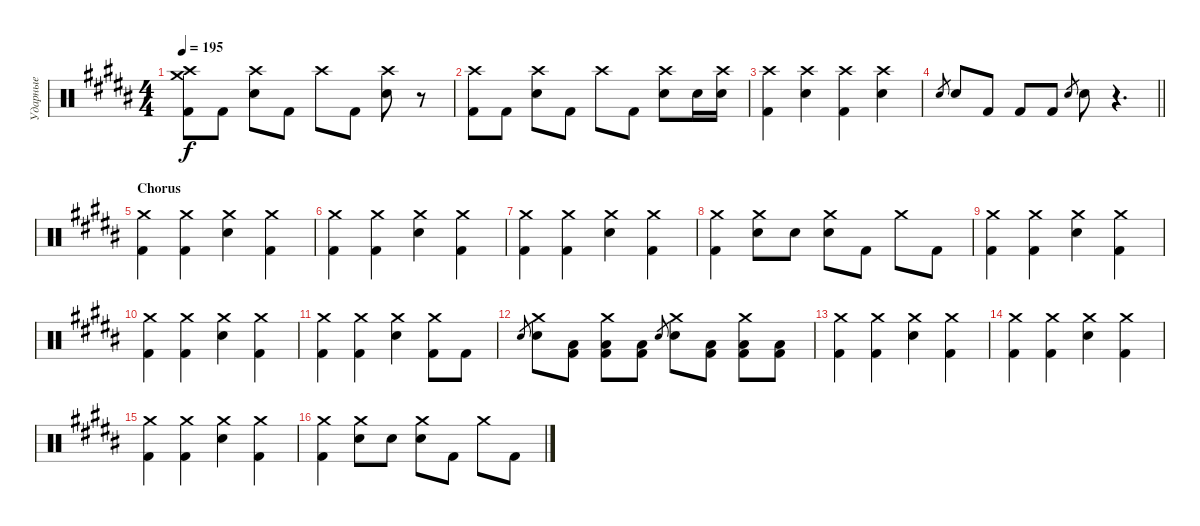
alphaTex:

\track ("Ударные" "Ударные") {instrument percussion}
\staff {score}
\articulation defaults
\ts (4 4)
\tempo 195
\clef neutral
\ks b
("Crash medium (hit)" "Crash high (hit)" "Kick (hit) 2").8{dy f} "Kick (hit) 2".8 ("Crash high (hit)" "Electric Snare (hit)").8 "Kick (hit) 2".8 "Crash high (hit)".8 "Kick (hit) 2".8 ("Crash high (hit)" "Electric Snare (hit)").8 r.8 |
("Crash high (hit)" "Kick (hit) 2").8 "Kick (hit) 2".8 ("Crash high (hit)" "Electric Snare (hit)").8 "Kick (hit) 2".8 "Crash high (hit)".8 "Kick (hit) 2".8 ("Crash high (hit)" "Electric Snare (hit)").8 "Electric Snare (hit)".16 ("Crash high (hit)" "Electric Snare (hit)").16 |
("Crash high (hit)" "Kick (hit) 2").4 ("Crash high (hit)" "Electric Snare (hit)").4 ("Crash high (hit)" "Kick (hit) 2").4 ("Crash high (hit)" "Electric Snare (hit)").4 |
\barLineRight lightlight "Electric Snare (hit)".8{gr} "Electric Snare (hit)".8 "Kick (hit) 2".8 "Kick (hit) 2".8 "Kick (hit) 2".8 "Electric Snare (hit)".8{gr} "Electric Snare (hit)".8
r.4{d} |
\section ("" "Chorus")
("Crash medium (hit)" "Kick (hit) 2").4 ("Crash medium (hit)" "Kick (hit) 2").4 ("Crash medium (hit)" "Electric Snare (hit)").4 ("Crash medium (hit)" "Kick (hit) 2").4 |
("Crash medium (hit)" "Kick (hit) 2").4 ("Crash medium (hit)" "Kick (hit) 2").4 ("Crash medium (hit)" "Electric Snare (hit)").4 ("Crash medium (hit)" "Kick (hit) 2").4 |
("Crash medium (hit)" "Kick (hit) 2").4 ("Crash medium (hit)" "Kick (hit) 2").4 ("Crash medium (hit)" "Electric Snare (hit)").4 ("Crash medium (hit)" "Kick (hit) 2").4 |
("Crash medium (hit)" "Kick (hit) 2").4 ("Crash medium (hit)" "Electric Snare (hit)").8 "Electric Snare (hit)".8 ("Crash medium (hit)" "Electric Snare (hit)").8 "Kick (hit) 2".8 "Crash medium (hit)".8 "Kick (hit) 2".8 |
("Crash medium (hit)" "Kick (hit) 2").4 ("Crash medium (hit)" "Kick (hit) 2").4 ("Crash medium (hit)" "Electric Snare (hit)").4 ("Crash medium (hit)" "Kick (hit) 2").4 |
("Crash medium (hit)" "Kick (hit) 2").4 ("Crash medium (hit)" "Kick (hit) 2").4 ("Crash medium (hit)" "Electric Snare (hit)").4 ("Crash medium (hit)" "Kick (hit) 2").4 |
("Crash medium (hit)" "Kick (hit) 2").4 ("Crash medium (hit)" "Kick (hit) 2").4 ("Crash medium (hit)" "Electric Snare (hit)").4 ("Crash medium (hit)" "Kick (hit) 2").8 "Kick (hit) 2".8 |
"Electric Snare (hit)".8{gr} ("Crash medium (hit)" "Electric Snare (hit)").8 ("Low Tom (hit)" "Kick (hit) 2").8 ("Crash medium (hit)" "Low Tom (hit)" "Kick (hit) 2").8 ("Low Tom (hit)" "Kick (hit) 2").8 "Electric Snare (hit)".8{gr} ("Crash medium (hit)" "Electric Snare (hit)").8 ("Low Tom (hit)" "Kick (hit) 2").8 ("Crash medium (hit)" "Low Tom (hit)" "Kick (hit) 2").8 ("Low Tom (hit)" "Kick (hit) 2").8 |
("Crash medium (hit)" "Kick (hit) 2").4 ("Crash medium (hit)" "Kick (hit) 2").4 ("Crash medium (hit)" "Electric Snare (hit)").4 ("Crash medium (hit)" "Kick (hit) 2").4 |
("Crash medium (hit)" "Kick (hit) 2").4 ("Crash medium (hit)" "Kick (hit) 2").4 ("Crash medium (hit)" "Electric Snare (hit)").4 ("Crash medium (hit)" "Kick (hit) 2").4 |
("Crash medium (hit)" "Kick (hit) 2").4 ("Crash medium (hit)" "Kick (hit) 2").4 ("Crash medium (hit)" "Electric Snare (hit)").4 ("Crash medium (hit)" "Kick (hit) 2").4 |
("Crash medium (hit)" "Kick (hit) 2").4 ("Crash medium (hit)" "Electric Snare (hit)").8 "Electric Snare (hit)".8 ("Crash medium (hit)" "Electric Snare (hit)").8 "Kick (hit) 2".8 "Crash medium (hit)".8 "Kick (hit) 2".8
